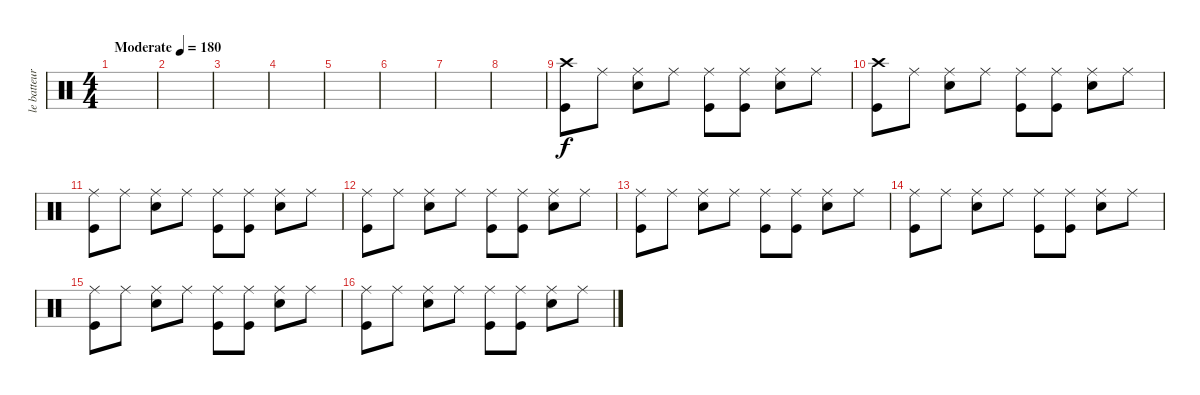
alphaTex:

\track ("le batteur" "le batteur") {instrument percussion}
\staff {score}
\articulation defaults
\ts (4 4)
\tempo (180 "Moderate")
\clef neutral
\ks c
|
|
|
|
|
|
|
|
("Crash high (hit)" "Kick (hit)").8 "Ride (middle)".8 ("Ride (middle)" "Snare (hit) 2").8 "Ride (middle)".8 ("Ride (middle)" "Kick (hit)").8 ("Ride (middle)" "Kick (hit)").8 ("Ride (middle)" "Snare (hit) 2").8 "Ride (middle)".8 |
("Crash high (hit)" "Kick (hit)").8 "Ride (middle)".8 ("Ride (middle)" "Snare (hit) 2").8 "Ride (middle)".8 ("Ride (middle)" "Kick (hit)").8 ("Ride (middle)" "Kick (hit)").8 ("Ride (middle)" "Snare (hit) 2").8 "Ride (middle)".8 |
("Ride (middle)" "Kick (hit)").8 "Ride (middle)".8 ("Ride (middle)" "Snare (hit) 2").8 "Ride (middle)".8 ("Ride (middle)" "Kick (hit)").8 ("Ride (middle)" "Kick (hit)").8 ("Ride (middle)" "Snare (hit) 2").8 "Ride (middle)".8 |
("Ride (middle)" "Kick (hit)").8 "Ride (middle)".8 ("Ride (middle)" "Snare (hit) 2").8 "Ride (middle)".8 ("Ride (middle)" "Kick (hit)").8 ("Ride (middle)" "Kick (hit)").8 ("Ride (middle)" "Snare (hit) 2").8 "Ride (middle)".8 |
("Ride (middle)" "Kick (hit)").8 "Ride (middle)".8 ("Ride (middle)" "Snare (hit) 2").8 "Ride (middle)".8 ("Ride (middle)" "Kick (hit)").8 ("Ride (middle)" "Kick (hit)").8 ("Ride (middle)" "Snare (hit) 2").8 "Ride (middle)".8 |
("Ride (middle)" "Kick (hit)").8 "Ride (middle)".8 ("Ride (middle)" "Snare (hit) 2").8 "Ride (middle)".8 ("Ride (middle)" "Kick (hit)").8 ("Ride (middle)" "Kick (hit)").8 ("Ride (middle)" "Snare (hit) 2").8 "Ride (middle)".8 |
("Ride (middle)" "Kick (hit)").8 "Ride (middle)".8 ("Ride (middle)" "Snare (hit) 2").8 "Ride (middle)".8 ("Ride (middle)" "Kick (hit)").8 ("Ride (middle)" "Kick (hit)").8 ("Ride (middle)" "Snare (hit) 2").8 "Ride (middle)".8 |
("Ride (middle)" "Kick (hit)").8 "Ride (middle)".8 ("Ride (middle)" "Snare (hit) 2").8 "Ride (middle)".8 ("Ride (middle)" "Kick (hit)").8 ("Ride (middle)" "Kick (hit)").8 ("Ride (middle)" "Snare (hit) 2").8 "Ride (middle)".8
